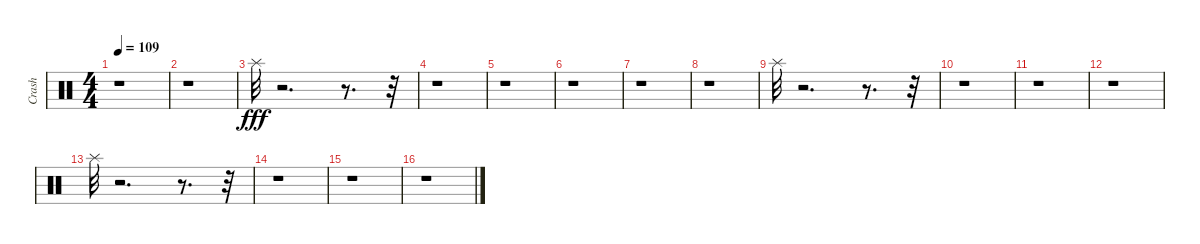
\track ("Crash" "Crash") {instrument percussion}
\staff {score}
\articulation defaults
\ts (4 4)
\tempo 109
\clef neutral
\ks c
r.1{dy fff} |
r.1 |
"Splash (hit)".32 r.2{d} r.8{d} r.32 |
r.1 |
r.1 |
r.1 |
r.1 |
r.1 |
"Splash (hit)".32 r.2{d} r.8{d} r.32 |
r.1 |
r.1 |
r.1 |
"Splash (hit)".32 r.2{d} r.8{d} r.32 |
r.1 |
r.1 |
r.1
